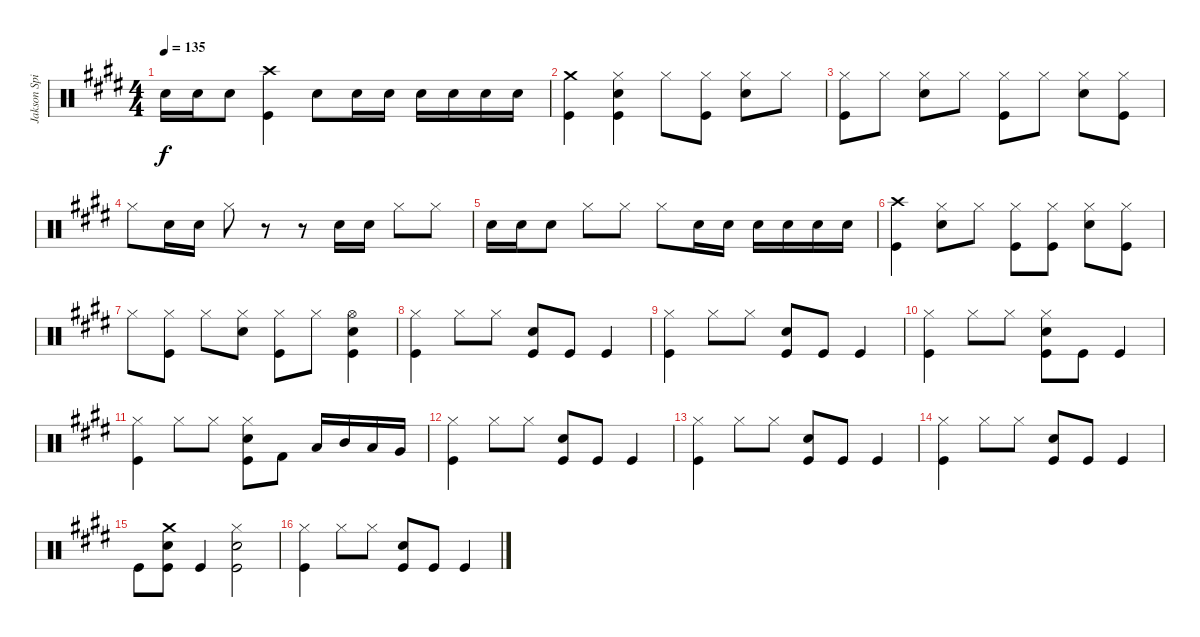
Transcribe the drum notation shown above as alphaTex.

\track ("Jakson Spires Drums" "Jakson Spi") {instrument percussion}
\staff {score}
\articulation defaults
\ts (4 4)
\tempo 135
\clef neutral
\ks e "Snare (hit) 2".16{dy f} "Snare (hit) 2".16 "Snare (hit) 2".8
("Crash high (hit)" "Kick (hit)").4 "Snare (hit) 2".8 "Snare (hit) 2".16 "Snare (hit) 2".16 "Snare (hit) 2".16 "Snare (hit) 2".16 "Snare (hit) 2".16 "Snare (hit) 2".16 |
("Crash medium (hit)" "Kick (hit)").4 ("Hi-Hat (closed)" "Snare (hit) 2" "Kick (hit)").4 "Hi-Hat (closed)".8 ("Hi-Hat (closed)" "Kick (hit)").8 ("Hi-Hat (closed)" "Snare (hit) 2").8 "Hi-Hat (closed)".8 |
("Hi-Hat (closed)" "Kick (hit)").8 "Hi-Hat (closed)".8 ("Hi-Hat (closed)" "Snare (hit) 2").8 "Hi-Hat (closed)".8 ("Hi-Hat (closed)" "Kick (hit)").8 "Hi-Hat (closed)".8 ("Hi-Hat (closed)" "Snare (hit) 2").8 ("Hi-Hat (closed)" "Kick (hit)").8 |
"Hi-Hat (closed)".8 "Snare (hit) 2".16 "Snare (hit) 2".16 "Hi-Hat (closed)".8 r.8 r.8 "Snare (hit) 2".16 "Snare (hit) 2".16 "Hi-Hat (closed)".8 "Hi-Hat (closed)".8 |
"Snare (hit) 2".16 "Snare (hit) 2".16 "Snare (hit) 2".8 "Hi-Hat (closed)".8 "Hi-Hat (closed)".8 "Hi-Hat (closed)".8 "Snare (hit) 2".16 "Snare (hit) 2".16 "Snare (hit) 2".16 "Snare (hit) 2".16 "Snare (hit) 2".16 "Snare (hit) 2".16 |
("Crash high (hit)" "Kick (hit)").4 ("Hi-Hat (closed)" "Snare (hit) 2").8 "Hi-Hat (closed)".8 ("Hi-Hat (closed)" "Kick (hit)").8 ("Hi-Hat (closed)" "Kick (hit)").8 ("Hi-Hat (closed)" "Snare (hit) 2").8 ("Hi-Hat (closed)" "Kick (hit)").8 |
"Hi-Hat (closed)".8 ("Hi-Hat (closed)" "Kick (hit)").8 "Hi-Hat (closed)".8 ("Hi-Hat (closed)" "Snare (hit) 2").8 ("Hi-Hat (closed)" "Kick (hit)").8 "Hi-Hat (closed)".8 ("Hi-Hat (open)" "Snare (hit) 2" "Kick (hit)").4 |
("Hi-Hat (closed)" "Kick (hit)").4 "Hi-Hat (closed)".8 "Hi-Hat (closed)".8 ("Snare (hit) 2" "Kick (hit)").8 "Kick (hit)".8 "Kick (hit)".4 |
("Hi-Hat (closed)" "Kick (hit)").4 "Hi-Hat (closed)".8 "Hi-Hat (closed)".8 ("Snare (hit) 2" "Kick (hit)").8 "Kick (hit)".8 "Kick (hit)".4 |
("Hi-Hat (closed)" "Kick (hit)").4 "Hi-Hat (closed)".8 "Hi-Hat (closed)".8 ("Hi-Hat (closed)" "Snare (hit) 2" "Kick (hit)").8 "Kick (hit)".8 "Kick (hit)".4 |
("Hi-Hat (closed)" "Kick (hit)").4 "Hi-Hat (closed)".8 "Hi-Hat (closed)".8 ("Hi-Hat (closed)" "Snare (hit) 2" "Kick (hit)").8 "Kick (hit) 2".8 "Low Tom (hit)".16 "Mid Tom (hit)".16 "Low Tom (hit)".16 "Very Low Tom (hit)".16 |
("Hi-Hat (closed)" "Kick (hit)").4 "Hi-Hat (closed)".8 "Hi-Hat (closed)".8 ("Snare (hit) 2" "Kick (hit)").8 "Kick (hit)".8 "Kick (hit)".4 |
("Hi-Hat (closed)" "Kick (hit)").4 "Hi-Hat (closed)".8 "Hi-Hat (closed)".8 ("Snare (hit) 2" "Kick (hit)").8 "Kick (hit)".8 "Kick (hit)".4 |
("Hi-Hat (closed)" "Kick (hit)").4 "Hi-Hat (closed)".8 "Hi-Hat (closed)".8 ("Snare (hit) 2" "Kick (hit)").8 "Kick (hit)".8 "Kick (hit)".4 |
"Kick (hit)".8 ("Crash medium (hit)" "Snare (hit) 2" "Kick (hit)").8 "Kick (hit)".4 ("Hi-Hat (closed)" "Snare (hit) 2" "Kick (hit)").2 |
("Hi-Hat (closed)" "Kick (hit)").4 "Hi-Hat (closed)".8 "Hi-Hat (closed)".8 ("Snare (hit) 2" "Kick (hit)").8 "Kick (hit)".8 "Kick (hit)".4
